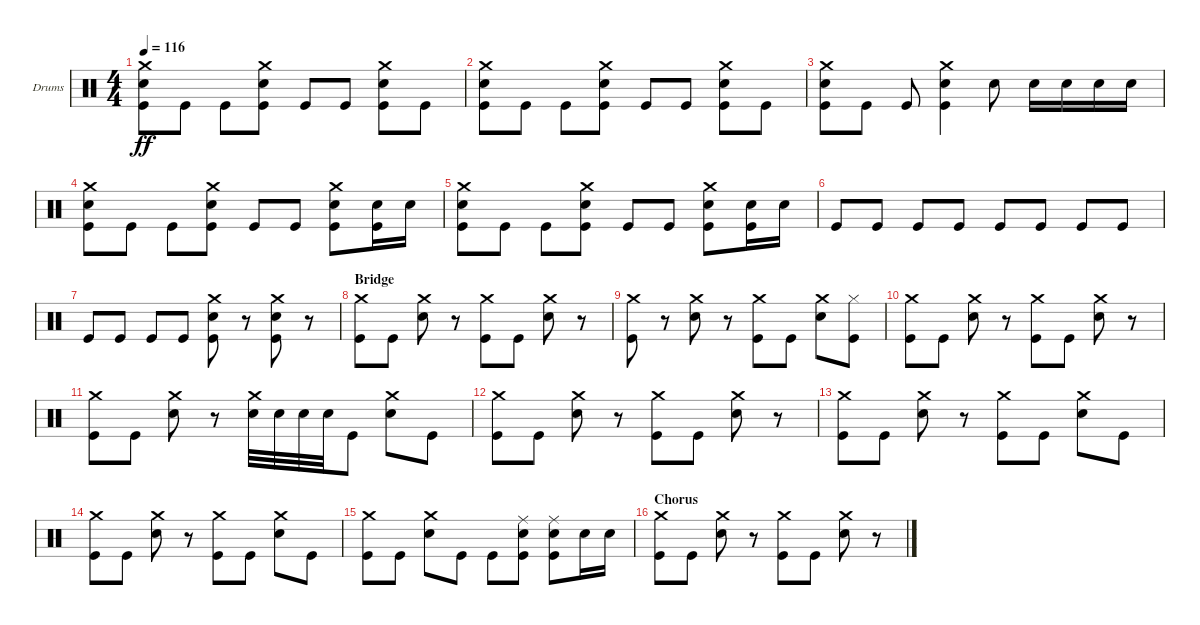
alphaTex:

\defaultSystemsLayout 4
\bracketExtendMode groupsimilarinstruments
\firstSystemTrackNameOrientation horizontal
\otherSystemsTrackNameOrientation horizontal
\track ("Drumkit" "Drums") {instrument percussion}
\staff {score}
\articulation defaults
\ts (4 4)
\tempo 116
\clef neutral
\ks c
("Crash medium (hit)" "Snare (hit) 2" "Kick (hit)").8{dy ff} "Kick (hit)".8 "Kick (hit)".8 ("Snare (hit) 2" "Kick (hit)" "Crash medium (hit)").8 "Kick (hit)".8 "Kick (hit)".8 ("Snare (hit) 2" "Kick (hit)" "Crash medium (hit)").8 "Kick (hit)".8 |
("Crash medium (hit)" "Snare (hit) 2" "Kick (hit)").8 "Kick (hit)".8 "Kick (hit)".8 ("Snare (hit) 2" "Kick (hit)" "Crash medium (hit)").8 "Kick (hit)".8 "Kick (hit)".8 ("Snare (hit) 2" "Kick (hit)" "Crash medium (hit)").8 "Kick (hit)".8 |
("Crash medium (hit)" "Snare (hit) 2" "Kick (hit)").8 "Kick (hit)".8 "Kick (hit)".8 ("Snare (hit) 2" "Kick (hit)" "Crash medium (hit)").4 "Snare (hit) 2".8 "Snare (hit) 2".16 "Snare (hit) 2".16 "Snare (hit) 2".16 "Snare (hit) 2".16 |
("Crash medium (hit)" "Snare (hit) 2" "Kick (hit)").8 "Kick (hit)".8 "Kick (hit)".8 ("Snare (hit) 2" "Kick (hit)" "Crash medium (hit)").8 "Kick (hit)".8 "Kick (hit)".8 ("Snare (hit) 2" "Kick (hit)" "Crash medium (hit)").8 ("Kick (hit)" "Snare (hit) 2").16 "Snare (hit) 2".16 |
("Crash medium (hit)" "Snare (hit) 2" "Kick (hit)").8 "Kick (hit)".8 "Kick (hit)".8 ("Snare (hit) 2" "Kick (hit)" "Crash medium (hit)").8 "Kick (hit)".8 "Kick (hit)".8 ("Snare (hit) 2" "Kick (hit)" "Crash medium (hit)").8 ("Kick (hit)" "Snare (hit) 2").16 "Snare (hit) 2".16 |
"Kick (hit)".8 "Kick (hit)".8 "Kick (hit)".8 "Kick (hit)".8 "Kick (hit)".8 "Kick (hit)".8 "Kick (hit)".8 "Kick (hit)".8 |
"Kick (hit)".8 "Kick (hit)".8 "Kick (hit)".8 "Kick (hit)".8 ("Kick (hit)" "Snare (hit) 2" "Crash medium (hit)").8 r.8 ("Kick (hit)" "Snare (hit) 2" "Crash medium (hit)").8 r.8 |
\section ("" "Bridge")
("Kick (hit)" "Crash medium (hit)").8 "Kick (hit)".8 ("Snare (hit) 2" "Crash medium (hit)").8 r.8 ("Kick (hit)" "Crash medium (hit)").8 "Kick (hit)".8 ("Snare (hit) 2" "Crash medium (hit)").8 r.8 |
("Kick (hit)" "Crash medium (hit)").8 r.8 ("Snare (hit) 2" "Crash medium (hit)").8 r.8 ("Kick (hit)" "Crash medium (hit)").8 "Kick (hit)".8 ("Snare (hit) 2" "Crash medium (hit)").8 ("Hi-Hat (closed)" "Kick (hit)").8 |
("Kick (hit)" "Crash medium (hit)").8 "Kick (hit)".8 ("Snare (hit) 2" "Crash medium (hit)").8 r.8 ("Kick (hit)" "Crash medium (hit)").8 "Kick (hit)".8 ("Snare (hit) 2" "Crash medium (hit)").8 r.8 |
("Crash medium (hit)" "Kick (hit)").8 "Kick (hit)".8 ("Snare (hit) 2" "Crash medium (hit)").8 r.8 ("Snare (hit) 2" "Crash medium (hit)").32 "Snare (hit) 2".32 "Snare (hit) 2".32 "Snare (hit) 2".32 "Kick (hit)".8 ("Snare (hit) 2" "Crash medium (hit)").8 "Kick (hit)".8 |
("Kick (hit)" "Crash medium (hit)").8 "Kick (hit)".8 ("Snare (hit) 2" "Crash medium (hit)").8 r.8 ("Kick (hit)" "Crash medium (hit)").8 "Kick (hit)".8 ("Snare (hit) 2" "Crash medium (hit)").8 r.8 |
("Kick (hit)" "Crash medium (hit)").8 "Kick (hit)".8 ("Snare (hit) 2" "Crash medium (hit)").8 r.8 ("Kick (hit)" "Crash medium (hit)").8 "Kick (hit)".8 ("Snare (hit) 2" "Crash medium (hit)").8 "Kick (hit)".8 |
("Kick (hit)" "Crash medium (hit)").8 "Kick (hit)".8 ("Snare (hit) 2" "Crash medium (hit)").8 r.8 ("Kick (hit)" "Crash medium (hit)").8 "Kick (hit)".8 ("Snare (hit) 2" "Crash medium (hit)").8 "Kick (hit)".8 |
("Kick (hit)" "Crash medium (hit)").8 "Kick (hit)".8 ("Snare (hit) 2" "Crash medium (hit)").8 "Kick (hit)".8 "Kick (hit)".8 ("Ride (middle)" "Kick (hit)" "Snare (hit) 2").8 ("Ride (middle)" "Kick (hit)" "Snare (hit) 2").8 "Snare (hit) 2".16 "Snare (hit) 2".16 |
\section ("" "Chorus")
("Kick (hit)" "Crash medium (hit)").8 "Kick (hit)".8 ("Snare (hit) 2" "Crash medium (hit)").8 r.8 ("Kick (hit)" "Crash medium (hit)").8 "Kick (hit)".8 ("Snare (hit) 2" "Crash medium (hit)").8 r.8
